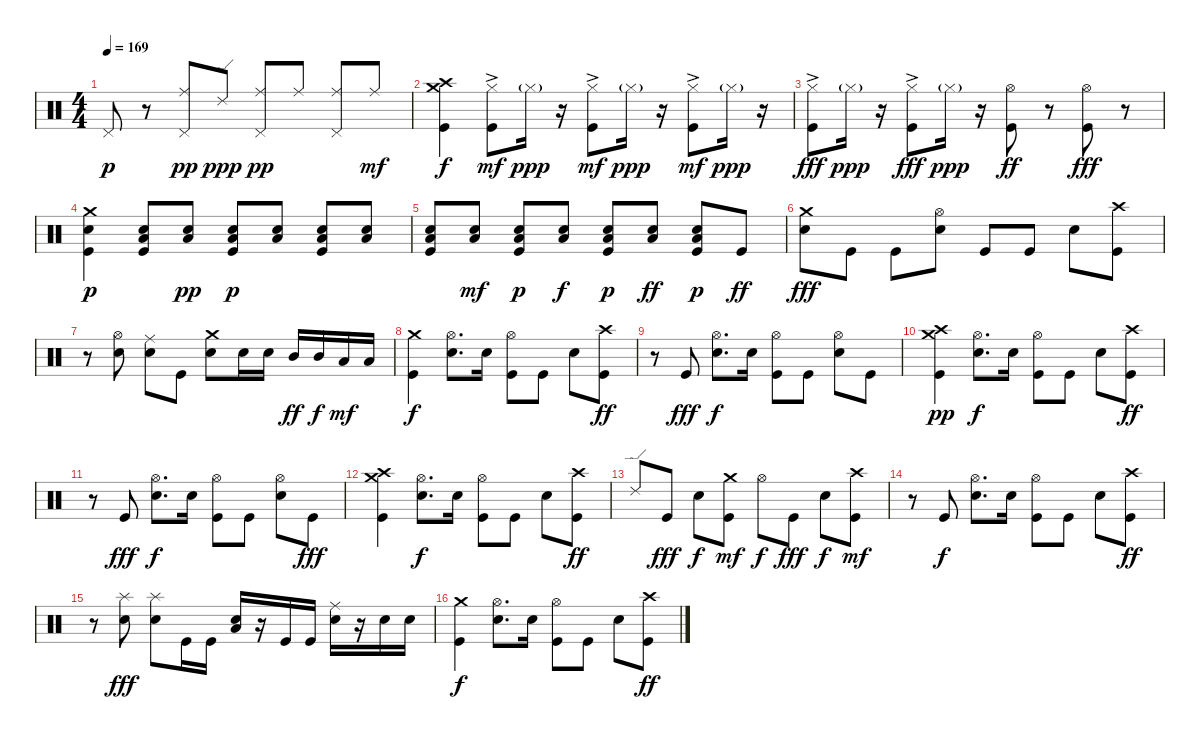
\track "" {instrument percussion}
\staff {score}
\articulation defaults
\ts (4 4)
\tempo 169
\clef neutral
\ks c "Pedal Hi-Hat (hit)".8{dy p}
r.8 ("Ride (middle)" "Pedal Hi-Hat (hit)").8{dy pp} "Ride (edge) 2".8{dy ppp} ("Pedal Hi-Hat (hit)" "Ride (middle)").8{dy pp} "Ride (middle)".8 ("Pedal Hi-Hat (hit)" "Ride (middle)").8 "Ride (middle)".8{dy mf} |
("Crash high (hit)" "Crash medium (hit)" "Kick (hit)").4{dy f} ("Kick (hit)" "Hi-Hat (closed)"{ac}).8{dy mf} "Hi-Hat (closed)"{g}.16{dy ppp} r.16 ("Kick (hit)" "Hi-Hat (closed)"{ac}).8{dy mf} "Hi-Hat (closed)"{g}.16{dy ppp} r.16 ("Kick (hit)" "Hi-Hat (closed)"{ac}).8{dy mf} "Hi-Hat (closed)"{g}.16{dy ppp} r.16 |
("Kick (hit)" "Hi-Hat (closed)"{ac}).8{dy fff} "Hi-Hat (closed)"{g}.16{dy ppp} r.16 ("Kick (hit)" "Hi-Hat (closed)"{ac}).8{dy fff} "Hi-Hat (closed)"{g}.16{dy ppp} r.16 ("Kick (hit)" "Hi-Hat (open)").8{dy ff} r.8 ("Hi-Hat (open)" "Kick (hit)").8{dy fff} r.8 |
("Crash medium (hit)" "Snare (hit) 2" "Kick (hit)").4{dy p} ("Low Tom (hit)" "Snare (hit) 2" "Kick (hit)").8 ("Low Tom (hit)" "Snare (hit) 2").8{dy pp} ("Low Tom (hit)" "Snare (hit) 2" "Kick (hit)").8{dy p} ("Low Tom (hit)" "Snare (hit) 2").8 ("Low Tom (hit)" "Snare (hit) 2" "Kick (hit)").8 ("Low Tom (hit)" "Snare (hit) 2").8 |
("Low Tom (hit)" "Snare (hit) 2" "Kick (hit)").8 ("Low Tom (hit)" "Snare (hit) 2").8{dy mf} ("Low Tom (hit)" "Snare (hit) 2" "Kick (hit)").8{dy p} ("Low Tom (hit)" "Snare (hit) 2").8{dy f} ("Low Tom (hit)" "Snare (hit) 2" "Kick (hit)").8{dy p} ("Low Tom (hit)" "Snare (hit) 2").8{dy ff} ("Low Tom (hit)" "Snare (hit) 2" "Kick (hit)").8{dy p} "Kick (hit)".8{dy ff} |
("Crash medium (hit)" "Snare (hit) 2").8{dy fff} "Kick (hit)".8 "Kick (hit)".8 ("Hi-Hat (open)" "Snare (hit) 2").8 "Kick (hit)".8 "Kick (hit)".8 "Snare (hit) 2".8 ("Crash high (hit)" "Kick (hit)").8 |
r.8 ("Hi-Hat (open)" "Snare (hit) 2").8 ("Ride (middle)" "Snare (hit) 2").8 "Kick (hit)".8 ("Crash medium (hit)" "Snare (hit) 2").8 "Snare (hit) 2".16 "Snare (hit) 2".16 "Mid Tom (hit)".16{dy ff} "Mid Tom (hit)".16{dy f} "Low Tom (hit)".16{dy mf} "Low Tom (hit)".16 |
("Crash medium (hit)" "Kick (hit)").4{dy f} ("Hi-Hat (open)" "Snare (hit) 2").8{d} "Snare (hit) 2".16 ("Hi-Hat (open)" "Kick (hit)").8 "Kick (hit)".8 "Snare (hit) 2".8 ("Crash high (hit)" "Kick (hit)").8{dy ff} |
r.8 "Kick (hit)".8{dy fff} ("Hi-Hat (open)" "Snare (hit) 2").8{d dy f} "Snare (hit) 2".16 ("Hi-Hat (open)" "Kick (hit)").8 "Kick (hit)".8 ("Hi-Hat (open)" "Snare (hit) 2").8 "Kick (hit)".8 |
("Crash high (hit)" "Crash medium (hit)" "Kick (hit)").4{dy pp} ("Hi-Hat (open)" "Snare (hit) 2").8{d dy f} "Snare (hit) 2".16 ("Hi-Hat (open)" "Kick (hit)").8 "Kick (hit)".8 "Snare (hit) 2".8 ("Crash high (hit)" "Kick (hit)").8{dy ff} |
r.8 "Kick (hit)".8{dy fff} ("Hi-Hat (open)" "Snare (hit) 2").8{d dy f} "Snare (hit) 2".16 ("Hi-Hat (open)" "Kick (hit)").8 "Kick (hit)".8 ("Hi-Hat (open)" "Snare (hit) 2").8 "Kick (hit)".8{dy fff} |
("Crash high (hit)" "Crash medium (hit)" "Kick (hit)").4 ("Hi-Hat (open)" "Snare (hit) 2").8{d dy f} "Snare (hit) 2".16 ("Hi-Hat (open)" "Kick (hit)").8 "Kick (hit)".8 "Snare (hit) 2".8 ("Crash high (hit)" "Kick (hit)").8{dy ff} |
"Ride (edge) 2".8 "Kick (hit)".8{dy fff} "Snare (hit) 2".8{dy f} ("Crash medium (hit)" "Kick (hit)").8{dy mf} "Hi-Hat (open)".8{dy f} "Kick (hit)".8{dy fff} "Snare (hit) 2".8{dy f} ("Crash high (hit)" "Kick (hit)").8{dy mf} |
r.8 "Kick (hit)".8{dy f} ("Hi-Hat (open)" "Snare (hit) 2").8{d} "Snare (hit) 2".16 ("Hi-Hat (open)" "Kick (hit)").8 "Kick (hit)".8 "Snare (hit) 2".8 ("Crash high (hit)" "Kick (hit)").8{dy ff} |
r.8 ("Snare (hit) 2" "Splash (hit)").8{dy fff} ("Splash (hit)" "Snare (hit) 2").8 "Kick (hit)".16 "Kick (hit)".16 ("Low Tom (hit)" "Snare (hit) 2").16 r.16 "Kick (hit)".16 "Kick (hit)".16 ("Ride (middle)" "Snare (hit) 2").16 r.16 "Snare (hit) 2".16 "Snare (hit) 2".16 |
("Crash medium (hit)" "Kick (hit)").4{dy f} ("Hi-Hat (open)" "Snare (hit) 2").8{d} "Snare (hit) 2".16 ("Hi-Hat (open)" "Kick (hit)").8 "Kick (hit)".8 "Snare (hit) 2".8 ("Crash high (hit)" "Kick (hit)").8{dy ff}
